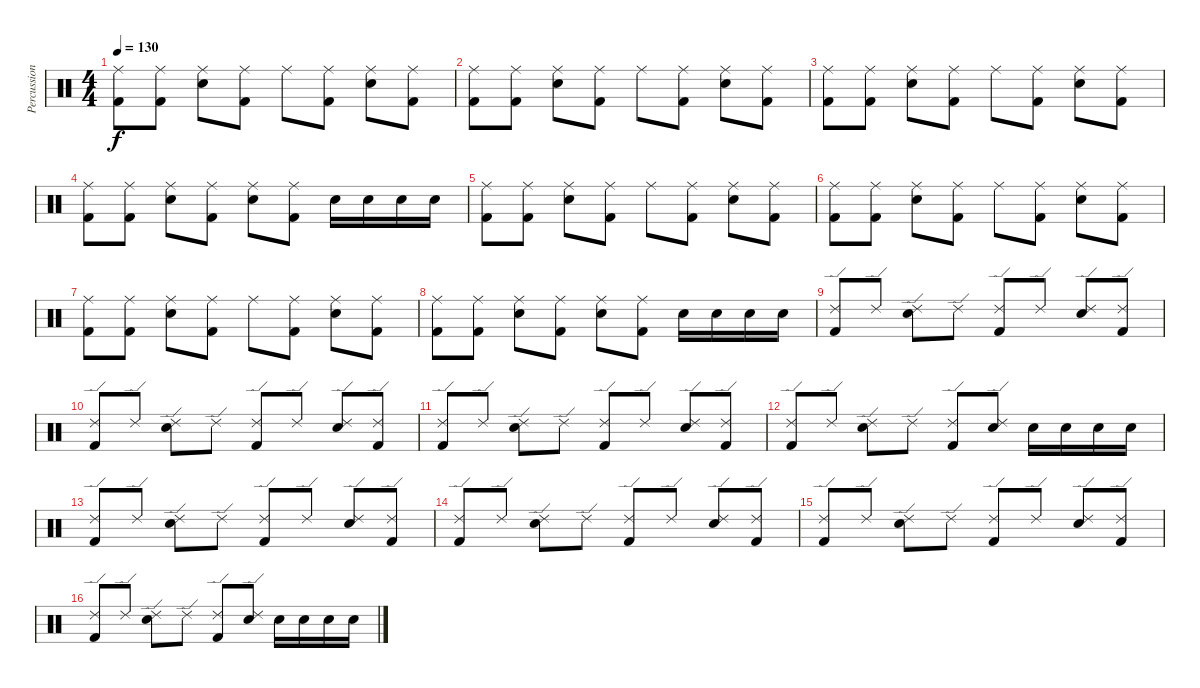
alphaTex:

\track ("Percussion" "Percussion") {instrument percussion}
\staff {score}
\articulation defaults
\ts (4 4)
\tempo 130
\clef neutral
\ks c
("Kick (hit) 2" "Ride (middle)").8{dy f} ("Kick (hit) 2" "Ride (middle)").8 ("Snare (hit) 2" "Ride (middle)").8 ("Kick (hit) 2" "Ride (middle)").8 "Ride (middle)".8 ("Kick (hit) 2" "Ride (middle)").8 ("Snare (hit) 2" "Ride (middle)").8 ("Kick (hit) 2" "Ride (middle)").8 |
("Kick (hit) 2" "Ride (middle)").8 ("Kick (hit) 2" "Ride (middle)").8 ("Snare (hit) 2" "Ride (middle)").8 ("Kick (hit) 2" "Ride (middle)").8 "Ride (middle)".8 ("Kick (hit) 2" "Ride (middle)").8 ("Snare (hit) 2" "Ride (middle)").8 ("Kick (hit) 2" "Ride (middle)").8 |
("Kick (hit) 2" "Ride (middle)").8 ("Kick (hit) 2" "Ride (middle)").8 ("Snare (hit) 2" "Ride (middle)").8 ("Kick (hit) 2" "Ride (middle)").8 "Ride (middle)".8 ("Kick (hit) 2" "Ride (middle)").8 ("Snare (hit) 2" "Ride (middle)").8 ("Kick (hit) 2" "Ride (middle)").8 |
("Kick (hit) 2" "Ride (middle)").8 ("Kick (hit) 2" "Ride (middle)").8 ("Snare (hit) 2" "Ride (middle)").8 ("Kick (hit) 2" "Ride (middle)").8 ("Snare (hit) 2" "Ride (middle)").8 ("Kick (hit) 2" "Ride (middle)").8 "Snare (hit) 2".16 "Snare (hit) 2".16 "Snare (hit) 2".16 "Snare (hit) 2".16 |
("Kick (hit) 2" "Ride (middle)").8 ("Kick (hit) 2" "Ride (middle)").8 ("Snare (hit) 2" "Ride (middle)").8 ("Kick (hit) 2" "Ride (middle)").8 "Ride (middle)".8 ("Kick (hit) 2" "Ride (middle)").8 ("Snare (hit) 2" "Ride (middle)").8 ("Kick (hit) 2" "Ride (middle)").8 |
("Kick (hit) 2" "Ride (middle)").8 ("Kick (hit) 2" "Ride (middle)").8 ("Snare (hit) 2" "Ride (middle)").8 ("Kick (hit) 2" "Ride (middle)").8 "Ride (middle)".8 ("Kick (hit) 2" "Ride (middle)").8 ("Snare (hit) 2" "Ride (middle)").8 ("Kick (hit) 2" "Ride (middle)").8 |
("Kick (hit) 2" "Ride (middle)").8 ("Kick (hit) 2" "Ride (middle)").8 ("Snare (hit) 2" "Ride (middle)").8 ("Kick (hit) 2" "Ride (middle)").8 "Ride (middle)".8 ("Kick (hit) 2" "Ride (middle)").8 ("Snare (hit) 2" "Ride (middle)").8 ("Kick (hit) 2" "Ride (middle)").8 |
("Kick (hit) 2" "Ride (middle)").8 ("Kick (hit) 2" "Ride (middle)").8 ("Snare (hit) 2" "Ride (middle)").8 ("Kick (hit) 2" "Ride (middle)").8 ("Snare (hit) 2" "Ride (middle)").8 ("Kick (hit) 2" "Ride (middle)").8 "Snare (hit) 2".16 "Snare (hit) 2".16 "Snare (hit) 2".16 "Snare (hit) 2".16 |
("Kick (hit) 2" "Ride (edge) 2").8 "Ride (edge) 2".8 ("Snare (hit) 2" "Ride (edge) 2").8 "Ride (edge) 2".8 ("Kick (hit) 2" "Ride (edge) 2").8 "Ride (edge) 2".8 ("Snare (hit) 2" "Ride (edge) 2").8 ("Kick (hit) 2" "Ride (edge) 2").8 |
("Kick (hit) 2" "Ride (edge) 2").8 "Ride (edge) 2".8 ("Snare (hit) 2" "Ride (edge) 2").8 "Ride (edge) 2".8 ("Kick (hit) 2" "Ride (edge) 2").8 "Ride (edge) 2".8 ("Snare (hit) 2" "Ride (edge) 2").8 ("Kick (hit) 2" "Ride (edge) 2").8 |
("Kick (hit) 2" "Ride (edge) 2").8 "Ride (edge) 2".8 ("Snare (hit) 2" "Ride (edge) 2").8 "Ride (edge) 2".8 ("Kick (hit) 2" "Ride (edge) 2").8 "Ride (edge) 2".8 ("Snare (hit) 2" "Ride (edge) 2").8 ("Kick (hit) 2" "Ride (edge) 2").8 |
("Kick (hit) 2" "Ride (edge) 2").8 "Ride (edge) 2".8 ("Snare (hit) 2" "Ride (edge) 2").8 "Ride (edge) 2".8 ("Kick (hit) 2" "Ride (edge) 2").8 ("Snare (hit) 2" "Ride (edge) 2").8 "Snare (hit) 2".16 "Snare (hit) 2".16 "Snare (hit) 2".16 "Snare (hit) 2".16 |
("Kick (hit) 2" "Ride (edge) 2").8 "Ride (edge) 2".8 ("Snare (hit) 2" "Ride (edge) 2").8 "Ride (edge) 2".8 ("Kick (hit) 2" "Ride (edge) 2").8 "Ride (edge) 2".8 ("Snare (hit) 2" "Ride (edge) 2").8 ("Kick (hit) 2" "Ride (edge) 2").8 |
("Kick (hit) 2" "Ride (edge) 2").8 "Ride (edge) 2".8 ("Snare (hit) 2" "Ride (edge) 2").8 "Ride (edge) 2".8 ("Kick (hit) 2" "Ride (edge) 2").8 "Ride (edge) 2".8 ("Snare (hit) 2" "Ride (edge) 2").8 ("Kick (hit) 2" "Ride (edge) 2").8 |
("Kick (hit) 2" "Ride (edge) 2").8 "Ride (edge) 2".8 ("Snare (hit) 2" "Ride (edge) 2").8 "Ride (edge) 2".8 ("Kick (hit) 2" "Ride (edge) 2").8 "Ride (edge) 2".8 ("Snare (hit) 2" "Ride (edge) 2").8 ("Kick (hit) 2" "Ride (edge) 2").8 |
("Kick (hit) 2" "Ride (edge) 2").8 "Ride (edge) 2".8 ("Snare (hit) 2" "Ride (edge) 2").8 "Ride (edge) 2".8 ("Kick (hit) 2" "Ride (edge) 2").8 ("Snare (hit) 2" "Ride (edge) 2").8 "Snare (hit) 2".16 "Snare (hit) 2".16 "Snare (hit) 2".16 "Snare (hit) 2".16
